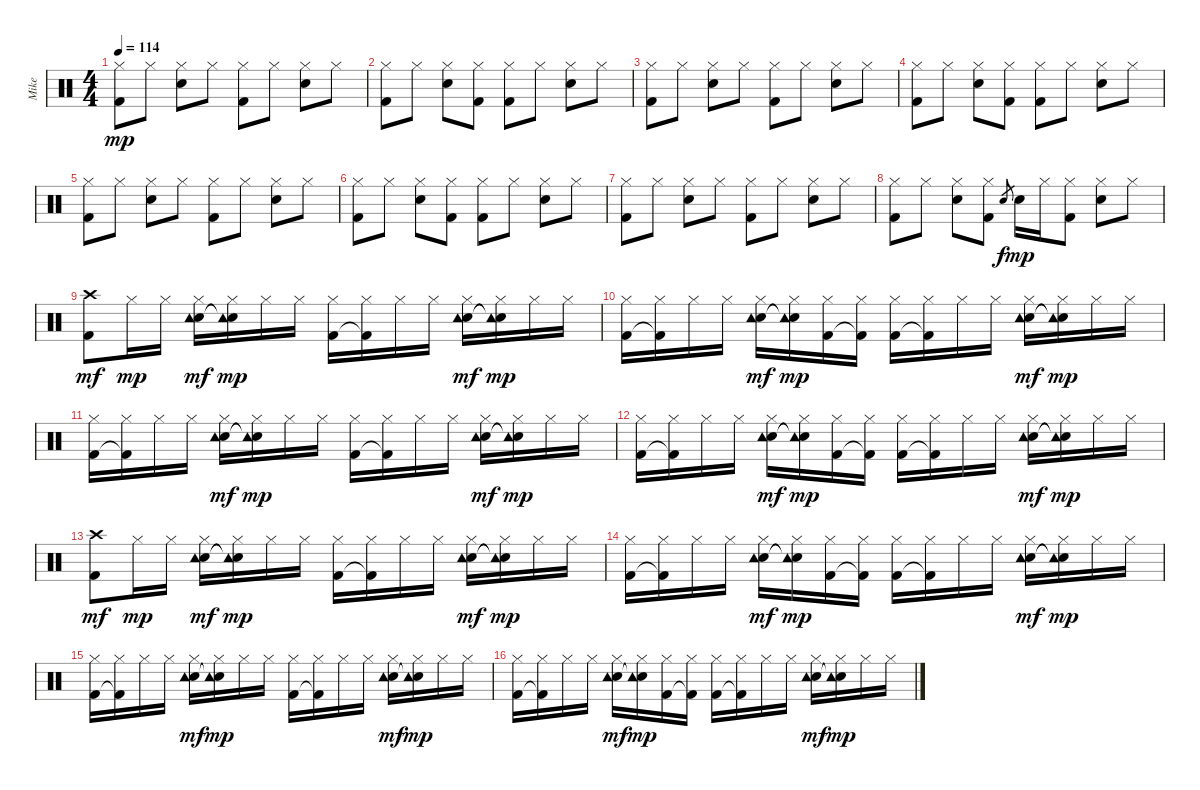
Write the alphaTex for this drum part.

\track ("Mike" "Mike") {instrument percussion}
\staff {score}
\articulation defaults
\ts (4 4)
\tempo 114
\clef neutral
\ks c
("Hi-Hat (closed)" "Kick (hit) 2").8{dy mp} "Hi-Hat (closed)".8 ("Hi-Hat (closed)" "Electric Snare (hit)").8 "Hi-Hat (closed)".8 ("Hi-Hat (closed)" "Kick (hit) 2").8 "Hi-Hat (closed)".8 ("Hi-Hat (closed)" "Electric Snare (hit)").8 "Hi-Hat (closed)".8 |
("Hi-Hat (closed)" "Kick (hit) 2").8 "Hi-Hat (closed)".8 ("Hi-Hat (closed)" "Electric Snare (hit)").8 ("Hi-Hat (closed)" "Kick (hit) 2").8 ("Hi-Hat (closed)" "Kick (hit) 2").8 "Hi-Hat (closed)".8 ("Hi-Hat (closed)" "Electric Snare (hit)").8 "Hi-Hat (closed)".8 |
("Hi-Hat (closed)" "Kick (hit) 2").8 "Hi-Hat (closed)".8 ("Hi-Hat (closed)" "Electric Snare (hit)").8 "Hi-Hat (closed)".8 ("Hi-Hat (closed)" "Kick (hit) 2").8 "Hi-Hat (closed)".8 ("Hi-Hat (closed)" "Electric Snare (hit)").8 "Hi-Hat (closed)".8 |
("Hi-Hat (closed)" "Kick (hit) 2").8 "Hi-Hat (closed)".8 ("Hi-Hat (closed)" "Electric Snare (hit)").8 ("Hi-Hat (closed)" "Kick (hit) 2").8 ("Hi-Hat (closed)" "Kick (hit) 2").8 "Hi-Hat (closed)".8 ("Hi-Hat (closed)" "Electric Snare (hit)").8 "Hi-Hat (closed)".8 |
("Hi-Hat (closed)" "Kick (hit) 2").8 "Hi-Hat (closed)".8 ("Hi-Hat (closed)" "Electric Snare (hit)").8 "Hi-Hat (closed)".8 ("Hi-Hat (closed)" "Kick (hit) 2").8 "Hi-Hat (closed)".8 ("Hi-Hat (closed)" "Electric Snare (hit)").8 "Hi-Hat (closed)".8 |
("Hi-Hat (closed)" "Kick (hit) 2").8 "Hi-Hat (closed)".8 ("Hi-Hat (closed)" "Electric Snare (hit)").8 ("Hi-Hat (closed)" "Kick (hit) 2").8 ("Hi-Hat (closed)" "Kick (hit) 2").8 "Hi-Hat (closed)".8 ("Hi-Hat (closed)" "Electric Snare (hit)").8 "Hi-Hat (closed)".8 |
("Hi-Hat (closed)" "Kick (hit) 2").8 "Hi-Hat (closed)".8 ("Hi-Hat (closed)" "Electric Snare (hit)").8 "Hi-Hat (closed)".8 ("Hi-Hat (closed)" "Kick (hit) 2").8 "Hi-Hat (closed)".8 ("Hi-Hat (closed)" "Electric Snare (hit)").8 "Hi-Hat (closed)".8 |
("Hi-Hat (closed)" "Kick (hit) 2").8 "Hi-Hat (closed)".8 ("Hi-Hat (closed)" "Electric Snare (hit)").8 ("Hi-Hat (closed)" "Kick (hit) 2").8 "Electric Snare (hit)".8{gr dy f} "Electric Snare (hit)".16{dy mp} "Hi-Hat (closed)".16 ("Hi-Hat (closed)" "Kick (hit) 2").8 ("Hi-Hat (closed)" "Electric Snare (hit)").8 "Hi-Hat (closed)".8 |
("Crash high (hit)" "Kick (hit) 2").8{dy mf} "Hi-Hat (closed)".16{dy mp} "Hi-Hat (closed)".16 ("Hi-Hat (closed)" "Electric Snare (hit)" "Tambourine (hit)").16{dy mf} ("Hi-Hat (closed)" "Electric Snare (hit)"{t} "Tambourine (hit)"{t}).16{dy mp} "Hi-Hat (closed)".16 "Hi-Hat (closed)".16 ("Hi-Hat (closed)" "Kick (hit) 2").16 ("Hi-Hat (closed)" "Kick (hit) 2"{t}).16 "Hi-Hat (closed)".16 "Hi-Hat (closed)".16 ("Hi-Hat (closed)" "Electric Snare (hit)" "Tambourine (hit)").16{dy mf} ("Hi-Hat (closed)" "Electric Snare (hit)"{t} "Tambourine (hit)"{t}).16{dy mp} "Hi-Hat (closed)".16 "Hi-Hat (closed)".16 |
("Hi-Hat (closed)" "Kick (hit) 2").16 ("Hi-Hat (closed)" "Kick (hit) 2"{t}).16 "Hi-Hat (closed)".16 "Hi-Hat (closed)".16 ("Hi-Hat (closed)" "Electric Snare (hit)" "Tambourine (hit)").16{dy mf} ("Hi-Hat (closed)" "Electric Snare (hit)"{t} "Tambourine (hit)"{t}).16{dy mp} ("Hi-Hat (closed)" "Kick (hit) 2").16 ("Hi-Hat (closed)" "Kick (hit) 2"{t}).16 ("Hi-Hat (closed)" "Kick (hit) 2").16 ("Hi-Hat (closed)" "Kick (hit) 2"{t}).16 "Hi-Hat (closed)".16 "Hi-Hat (closed)".16 ("Hi-Hat (closed)" "Electric Snare (hit)" "Tambourine (hit)").16{dy mf} ("Hi-Hat (closed)" "Electric Snare (hit)"{t} "Tambourine (hit)"{t}).16{dy mp} "Hi-Hat (closed)".16 "Hi-Hat (closed)".16 |
("Hi-Hat (closed)" "Kick (hit) 2").16 ("Hi-Hat (closed)" "Kick (hit) 2"{t}).16 "Hi-Hat (closed)".16 "Hi-Hat (closed)".16 ("Hi-Hat (closed)" "Electric Snare (hit)" "Tambourine (hit)").16{dy mf} ("Hi-Hat (closed)" "Electric Snare (hit)"{t} "Tambourine (hit)"{t}).16{dy mp} "Hi-Hat (closed)".16 "Hi-Hat (closed)".16 ("Hi-Hat (closed)" "Kick (hit) 2").16 ("Hi-Hat (closed)" "Kick (hit) 2"{t}).16 "Hi-Hat (closed)".16 "Hi-Hat (closed)".16 ("Hi-Hat (closed)" "Electric Snare (hit)" "Tambourine (hit)").16{dy mf} ("Hi-Hat (closed)" "Electric Snare (hit)"{t} "Tambourine (hit)"{t}).16{dy mp} "Hi-Hat (closed)".16 "Hi-Hat (closed)".16 |
("Hi-Hat (closed)" "Kick (hit) 2").16 ("Hi-Hat (closed)" "Kick (hit) 2"{t}).16 "Hi-Hat (closed)".16 "Hi-Hat (closed)".16 ("Hi-Hat (closed)" "Electric Snare (hit)" "Tambourine (hit)").16{dy mf} ("Hi-Hat (closed)" "Electric Snare (hit)"{t} "Tambourine (hit)"{t}).16{dy mp} ("Hi-Hat (closed)" "Kick (hit) 2").16 ("Hi-Hat (closed)" "Kick (hit) 2"{t}).16 ("Hi-Hat (closed)" "Kick (hit) 2").16 ("Hi-Hat (closed)" "Kick (hit) 2"{t}).16 "Hi-Hat (closed)".16 "Hi-Hat (closed)".16 ("Hi-Hat (closed)" "Electric Snare (hit)" "Tambourine (hit)").16{dy mf} ("Hi-Hat (closed)" "Electric Snare (hit)"{t} "Tambourine (hit)"{t}).16{dy mp} "Hi-Hat (closed)".16 "Hi-Hat (closed)".16 |
("Crash high (hit)" "Kick (hit) 2").8{dy mf} "Hi-Hat (closed)".16{dy mp} "Hi-Hat (closed)".16 ("Hi-Hat (closed)" "Electric Snare (hit)" "Tambourine (hit)").16{dy mf} ("Hi-Hat (closed)" "Electric Snare (hit)"{t} "Tambourine (hit)"{t}).16{dy mp} "Hi-Hat (closed)".16 "Hi-Hat (closed)".16 ("Hi-Hat (closed)" "Kick (hit) 2").16 ("Hi-Hat (closed)" "Kick (hit) 2"{t}).16 "Hi-Hat (closed)".16 "Hi-Hat (closed)".16 ("Hi-Hat (closed)" "Electric Snare (hit)" "Tambourine (hit)").16{dy mf} ("Hi-Hat (closed)" "Electric Snare (hit)"{t} "Tambourine (hit)"{t}).16{dy mp} "Hi-Hat (closed)".16 "Hi-Hat (closed)".16 |
("Hi-Hat (closed)" "Kick (hit) 2").16 ("Hi-Hat (closed)" "Kick (hit) 2"{t}).16 "Hi-Hat (closed)".16 "Hi-Hat (closed)".16 ("Hi-Hat (closed)" "Electric Snare (hit)" "Tambourine (hit)").16{dy mf} ("Hi-Hat (closed)" "Electric Snare (hit)"{t} "Tambourine (hit)"{t}).16{dy mp} ("Hi-Hat (closed)" "Kick (hit) 2").16 ("Hi-Hat (closed)" "Kick (hit) 2"{t}).16 ("Hi-Hat (closed)" "Kick (hit) 2").16 ("Hi-Hat (closed)" "Kick (hit) 2"{t}).16 "Hi-Hat (closed)".16 "Hi-Hat (closed)".16 ("Hi-Hat (closed)" "Electric Snare (hit)" "Tambourine (hit)").16{dy mf} ("Hi-Hat (closed)" "Electric Snare (hit)"{t} "Tambourine (hit)"{t}).16{dy mp} "Hi-Hat (closed)".16 "Hi-Hat (closed)".16 |
("Hi-Hat (closed)" "Kick (hit) 2").16 ("Hi-Hat (closed)" "Kick (hit) 2"{t}).16 "Hi-Hat (closed)".16 "Hi-Hat (closed)".16 ("Hi-Hat (closed)" "Electric Snare (hit)" "Tambourine (hit)").16{dy mf} ("Hi-Hat (closed)" "Electric Snare (hit)"{t} "Tambourine (hit)"{t}).16{dy mp} "Hi-Hat (closed)".16 "Hi-Hat (closed)".16 ("Hi-Hat (closed)" "Kick (hit) 2").16 ("Hi-Hat (closed)" "Kick (hit) 2"{t}).16 "Hi-Hat (closed)".16 "Hi-Hat (closed)".16 ("Hi-Hat (closed)" "Electric Snare (hit)" "Tambourine (hit)").16{dy mf} ("Hi-Hat (closed)" "Electric Snare (hit)"{t} "Tambourine (hit)"{t}).16{dy mp} "Hi-Hat (closed)".16 "Hi-Hat (closed)".16 |
("Hi-Hat (closed)" "Kick (hit) 2").16 ("Hi-Hat (closed)" "Kick (hit) 2"{t}).16 "Hi-Hat (closed)".16 "Hi-Hat (closed)".16 ("Hi-Hat (closed)" "Electric Snare (hit)" "Tambourine (hit)").16{dy mf} ("Hi-Hat (closed)" "Electric Snare (hit)"{t} "Tambourine (hit)"{t}).16{dy mp} ("Hi-Hat (closed)" "Kick (hit) 2").16 ("Hi-Hat (closed)" "Kick (hit) 2"{t}).16 ("Hi-Hat (closed)" "Kick (hit) 2").16 ("Hi-Hat (closed)" "Kick (hit) 2"{t}).16 "Hi-Hat (closed)".16 "Hi-Hat (closed)".16 ("Hi-Hat (closed)" "Electric Snare (hit)" "Tambourine (hit)").16{dy mf} ("Hi-Hat (closed)" "Electric Snare (hit)"{t} "Tambourine (hit)"{t}).16{dy mp} "Hi-Hat (closed)".16 "Hi-Hat (closed)".16
